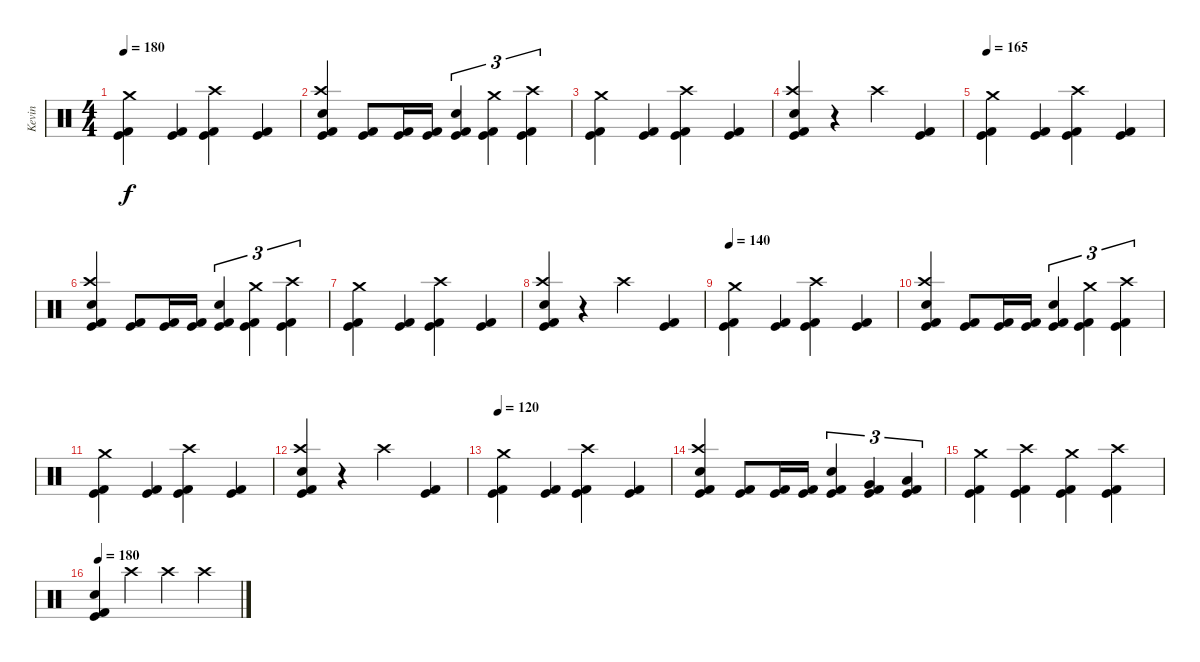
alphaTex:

\track ("Kevin" "Kevin") {instrument percussion}
\staff {score}
\articulation defaults
\ts (4 4)
\section ("" "")
\tempo 180
\clef neutral
\ks c
("Crash medium (hit)" "Kick (hit)" "Kick (hit) 2").4{dy f} ("Kick (hit)" "Kick (hit) 2").4 ("Crash high (hit)" "Kick (hit)" "Kick (hit) 2").4 ("Kick (hit)" "Kick (hit) 2").4 |
("Crash high (hit)" "Electric Snare (hit)" "Kick (hit)" "Kick (hit) 2").4 ("Kick (hit)" "Kick (hit) 2").8 ("Kick (hit)" "Kick (hit) 2").16 ("Kick (hit)" "Kick (hit) 2").16 ("Electric Snare (hit)" "Kick (hit)" "Kick (hit) 2").4{tu (3 2)} ("Crash medium (hit)" "Kick (hit)" "Kick (hit) 2").4{tu (3 2)} ("Crash high (hit)" "Kick (hit)" "Kick (hit) 2").4{tu (3 2)} |
("Crash medium (hit)" "Kick (hit)" "Kick (hit) 2").4 ("Kick (hit)" "Kick (hit) 2").4 ("Crash high (hit)" "Kick (hit)" "Kick (hit) 2").4 ("Kick (hit)" "Kick (hit) 2").4 |
("Crash high (hit)" "Electric Snare (hit)" "Kick (hit)" "Kick (hit) 2").4 r.4 "Crash high (hit)".4 ("Kick (hit)" "Kick (hit) 2").4 |
\tempo 165
("Crash medium (hit)" "Kick (hit)" "Kick (hit) 2").4 ("Kick (hit)" "Kick (hit) 2").4 ("Crash high (hit)" "Kick (hit)" "Kick (hit) 2").4 ("Kick (hit)" "Kick (hit) 2").4 |
("Crash high (hit)" "Electric Snare (hit)" "Kick (hit)" "Kick (hit) 2").4 ("Kick (hit)" "Kick (hit) 2").8 ("Kick (hit)" "Kick (hit) 2").16 ("Kick (hit)" "Kick (hit) 2").16 ("Electric Snare (hit)" "Kick (hit)" "Kick (hit) 2").4{tu (3 2)} ("Crash medium (hit)" "Kick (hit)" "Kick (hit) 2").4{tu (3 2)} ("Crash high (hit)" "Kick (hit)" "Kick (hit) 2").4{tu (3 2)} |
("Crash medium (hit)" "Kick (hit)" "Kick (hit) 2").4 ("Kick (hit)" "Kick (hit) 2").4 ("Crash high (hit)" "Kick (hit)" "Kick (hit) 2").4 ("Kick (hit)" "Kick (hit) 2").4 |
("Crash high (hit)" "Electric Snare (hit)" "Kick (hit)" "Kick (hit) 2").4 r.4 "Crash high (hit)".4 ("Kick (hit)" "Kick (hit) 2").4 |
\tempo 140
("Crash medium (hit)" "Kick (hit)" "Kick (hit) 2").4 ("Kick (hit)" "Kick (hit) 2").4 ("Crash high (hit)" "Kick (hit)" "Kick (hit) 2").4 ("Kick (hit)" "Kick (hit) 2").4 |
("Crash high (hit)" "Electric Snare (hit)" "Kick (hit)" "Kick (hit) 2").4 ("Kick (hit)" "Kick (hit) 2").8 ("Kick (hit)" "Kick (hit) 2").16 ("Kick (hit)" "Kick (hit) 2").16 ("Electric Snare (hit)" "Kick (hit)" "Kick (hit) 2").4{tu (3 2)} ("Crash medium (hit)" "Kick (hit)" "Kick (hit) 2").4{tu (3 2)} ("Crash high (hit)" "Kick (hit)" "Kick (hit) 2").4{tu (3 2)} |
("Crash medium (hit)" "Kick (hit)" "Kick (hit) 2").4 ("Kick (hit)" "Kick (hit) 2").4 ("Crash high (hit)" "Kick (hit)" "Kick (hit) 2").4 ("Kick (hit)" "Kick (hit) 2").4 |
("Crash high (hit)" "Electric Snare (hit)" "Kick (hit)" "Kick (hit) 2").4 r.4 "Crash high (hit)".4 ("Kick (hit)" "Kick (hit) 2").4 |
\tempo 120
("Crash medium (hit)" "Kick (hit)" "Kick (hit) 2").4 ("Kick (hit)" "Kick (hit) 2").4 ("Crash high (hit)" "Kick (hit)" "Kick (hit) 2").4 ("Kick (hit)" "Kick (hit) 2").4 |
("Crash high (hit)" "Electric Snare (hit)" "Kick (hit)" "Kick (hit) 2").4 ("Kick (hit)" "Kick (hit) 2").8 ("Kick (hit)" "Kick (hit) 2").16 ("Kick (hit)" "Kick (hit) 2").16 ("Electric Snare (hit)" "Kick (hit)" "Kick (hit) 2").4{tu (3 2)} ("Very Low Tom (hit)" "Kick (hit)" "Kick (hit) 2").4{tu (3 2)} ("Low Floor Tom (hit)" "Kick (hit)" "Kick (hit) 2").4{tu (3 2)} |
("Crash medium (hit)" "Kick (hit)" "Kick (hit) 2").4 ("Crash high (hit)" "Kick (hit)" "Kick (hit) 2").4 ("Crash medium (hit)" "Kick (hit)" "Kick (hit) 2").4 ("Crash high (hit)" "Kick (hit)" "Kick (hit) 2").4 |
\tempo 180
("Electric Snare (hit)" "Kick (hit)" "Kick (hit) 2").4 "Crash high (hit)".4 "Crash high (hit)".4 "Crash high (hit)".4
